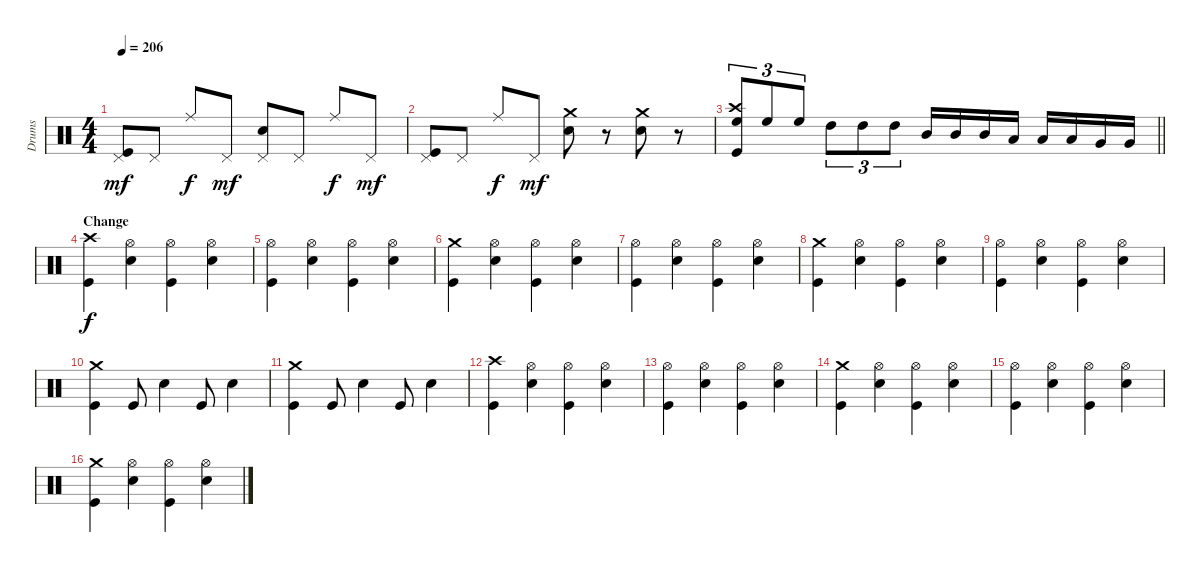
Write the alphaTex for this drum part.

\track ("Drums" "Drums") {instrument percussion}
\staff {score}
\articulation defaults
\ts (4 4)
\tempo 206
\clef neutral
\ks c
("Pedal Hi-Hat (hit)" "Kick (hit)").8{dy mf} "Pedal Hi-Hat (hit)".8 "Ride (middle)".8{dy f} "Pedal Hi-Hat (hit)".8{dy mf} ("Pedal Hi-Hat (hit)" "Electric Snare (hit)").8 "Pedal Hi-Hat (hit)".8 "Ride (middle)".8{dy f} "Pedal Hi-Hat (hit)".8{dy mf} |
("Pedal Hi-Hat (hit)" "Kick (hit)").8 "Pedal Hi-Hat (hit)".8 "Ride (middle)".8{dy f} "Pedal Hi-Hat (hit)".8{dy mf} ("Crash medium (hit)" "Electric Snare (hit)").8 r.8 ("Crash medium (hit)" "Electric Snare (hit)").8 r.8 |
\barLineRight lightlight
("Crash high (hit)" "High Floor Tom (hit)" "Kick (hit)").8{tu (3 2)} "High Floor Tom (hit)".8{tu (3 2)} "High Floor Tom (hit)".8{tu (3 2)} "High Tom (hit)".8{tu (3 2)} "High Tom (hit)".8{tu (3 2)} "High Tom (hit)".8{tu (3 2)} "Mid Tom (hit)".16 "Mid Tom (hit)".16 "Mid Tom (hit)".16 "Low Tom (hit)".16 "Low Tom (hit)".16 "Low Tom (hit)".16 "Very Low Tom (hit)".16 "Very Low Tom (hit)".16 |
\section ("" "Change")
("Crash high (hit)" "Kick (hit)").4{dy f} ("Hi-Hat (open)" "Electric Snare (hit)").4 ("Hi-Hat (open)" "Kick (hit)").4 ("Hi-Hat (open)" "Electric Snare (hit)").4 |
("Hi-Hat (open)" "Kick (hit)").4 ("Hi-Hat (open)" "Electric Snare (hit)").4 ("Hi-Hat (open)" "Kick (hit)").4 ("Hi-Hat (open)" "Electric Snare (hit)").4 |
("Crash medium (hit)" "Kick (hit)").4 ("Hi-Hat (open)" "Electric Snare (hit)").4 ("Hi-Hat (open)" "Kick (hit)").4 ("Hi-Hat (open)" "Electric Snare (hit)").4 |
("Hi-Hat (open)" "Kick (hit)").4 ("Hi-Hat (open)" "Electric Snare (hit)").4 ("Hi-Hat (open)" "Kick (hit)").4 ("Hi-Hat (open)" "Electric Snare (hit)").4 |
("Crash medium (hit)" "Kick (hit)").4 ("Hi-Hat (open)" "Electric Snare (hit)").4 ("Hi-Hat (open)" "Kick (hit)").4 ("Hi-Hat (open)" "Electric Snare (hit)").4 |
("Hi-Hat (open)" "Kick (hit)").4 ("Hi-Hat (open)" "Electric Snare (hit)").4 ("Hi-Hat (open)" "Kick (hit)").4 ("Hi-Hat (open)" "Electric Snare (hit)").4 |
("Crash medium (hit)" "Kick (hit)").4 "Kick (hit)".8 "Electric Snare (hit)".4 "Kick (hit)".8 "Electric Snare (hit)".4 |
("Crash medium (hit)" "Kick (hit)").4 "Kick (hit)".8 "Electric Snare (hit)".4 "Kick (hit)".8 "Electric Snare (hit)".4 |
("Crash high (hit)" "Kick (hit)").4 ("Hi-Hat (open)" "Electric Snare (hit)").4 ("Hi-Hat (open)" "Kick (hit)").4 ("Hi-Hat (open)" "Electric Snare (hit)").4 |
("Hi-Hat (open)" "Kick (hit)").4 ("Hi-Hat (open)" "Electric Snare (hit)").4 ("Hi-Hat (open)" "Kick (hit)").4 ("Hi-Hat (open)" "Electric Snare (hit)").4 |
("Crash medium (hit)" "Kick (hit)").4 ("Hi-Hat (open)" "Electric Snare (hit)").4 ("Hi-Hat (open)" "Kick (hit)").4 ("Hi-Hat (open)" "Electric Snare (hit)").4 |
("Hi-Hat (open)" "Kick (hit)").4 ("Hi-Hat (open)" "Electric Snare (hit)").4 ("Hi-Hat (open)" "Kick (hit)").4 ("Hi-Hat (open)" "Electric Snare (hit)").4 |
("Crash medium (hit)" "Kick (hit)").4 ("Hi-Hat (open)" "Electric Snare (hit)").4 ("Hi-Hat (open)" "Kick (hit)").4 ("Hi-Hat (open)" "Electric Snare (hit)").4
